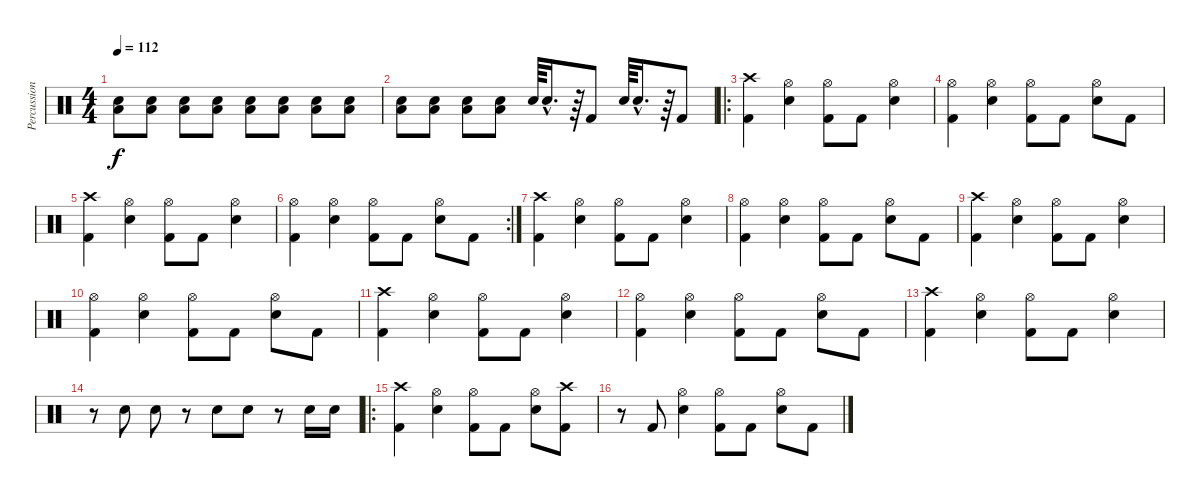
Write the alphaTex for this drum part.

\track ("Percussion" "Percussion") {instrument percussion}
\staff {score}
\articulation defaults
\ts (4 4)
\tempo 112
\clef neutral
\ks c
("Snare (hit) 2" "Low Floor Tom (hit)").8{dy f} ("Snare (hit) 2" "Low Floor Tom (hit)").8 ("Snare (hit) 2" "Low Floor Tom (hit)").8 ("Snare (hit) 2" "Low Floor Tom (hit)").8 ("Snare (hit) 2" "Low Floor Tom (hit)").8 ("Snare (hit) 2" "Low Floor Tom (hit)").8 ("Snare (hit) 2" "Low Floor Tom (hit)").8 ("Snare (hit) 2" "Low Floor Tom (hit)").8 |
("Snare (hit) 2" "Low Floor Tom (hit)").8 ("Snare (hit) 2" "Low Floor Tom (hit)").8 ("Snare (hit) 2" "Low Floor Tom (hit)").8 ("Snare (hit) 2" "Low Floor Tom (hit)").8 "Snare (hit) 2".64 "Snare (hit) 2"{hac}.16{d} r.64 "Kick (hit) 2".8 "Snare (hit) 2".64 "Snare (hit) 2"{hac}.16{d} r.64 "Kick (hit) 2".8 |
\ro
("Crash high (hit)" "Kick (hit) 2").4 ("Hi-Hat (open)" "Snare (hit) 2").4 ("Hi-Hat (open)" "Kick (hit) 2").8 "Kick (hit) 2".8 ("Hi-Hat (open)" "Snare (hit) 2").4 |
("Hi-Hat (open)" "Kick (hit) 2").4 ("Hi-Hat (open)" "Snare (hit) 2").4 ("Hi-Hat (open)" "Kick (hit) 2").8 "Kick (hit) 2".8 ("Hi-Hat (open)" "Snare (hit) 2").8 "Kick (hit) 2".8 |
("Crash high (hit)" "Kick (hit) 2").4 ("Hi-Hat (open)" "Snare (hit) 2").4 ("Hi-Hat (open)" "Kick (hit) 2").8 "Kick (hit) 2".8 ("Hi-Hat (open)" "Snare (hit) 2").4 |
\rc 2
("Hi-Hat (open)" "Kick (hit) 2").4 ("Hi-Hat (open)" "Snare (hit) 2").4 ("Hi-Hat (open)" "Kick (hit) 2").8 "Kick (hit) 2".8 ("Hi-Hat (open)" "Snare (hit) 2").8 "Kick (hit) 2".8 |
("Crash high (hit)" "Kick (hit) 2").4 ("Hi-Hat (open)" "Snare (hit) 2").4 ("Hi-Hat (open)" "Kick (hit) 2").8 "Kick (hit) 2".8 ("Hi-Hat (open)" "Snare (hit) 2").4 |
("Hi-Hat (open)" "Kick (hit) 2").4 ("Hi-Hat (open)" "Snare (hit) 2").4 ("Hi-Hat (open)" "Kick (hit) 2").8 "Kick (hit) 2".8 ("Hi-Hat (open)" "Snare (hit) 2").8 "Kick (hit) 2".8 |
("Crash high (hit)" "Kick (hit) 2").4 ("Hi-Hat (open)" "Snare (hit) 2").4 ("Hi-Hat (open)" "Kick (hit) 2").8 "Kick (hit) 2".8 ("Hi-Hat (open)" "Snare (hit) 2").4 |
("Hi-Hat (open)" "Kick (hit) 2").4 ("Hi-Hat (open)" "Snare (hit) 2").4 ("Hi-Hat (open)" "Kick (hit) 2").8 "Kick (hit) 2".8 ("Hi-Hat (open)" "Snare (hit) 2").8 "Kick (hit) 2".8 |
("Crash high (hit)" "Kick (hit) 2").4 ("Hi-Hat (open)" "Snare (hit) 2").4 ("Hi-Hat (open)" "Kick (hit) 2").8 "Kick (hit) 2".8 ("Hi-Hat (open)" "Snare (hit) 2").4 |
("Hi-Hat (open)" "Kick (hit) 2").4 ("Hi-Hat (open)" "Snare (hit) 2").4 ("Hi-Hat (open)" "Kick (hit) 2").8 "Kick (hit) 2".8 ("Hi-Hat (open)" "Snare (hit) 2").8 "Kick (hit) 2".8 |
("Crash high (hit)" "Kick (hit) 2").4 ("Hi-Hat (open)" "Snare (hit) 2").4 ("Hi-Hat (open)" "Kick (hit) 2").8 "Kick (hit) 2".8 ("Hi-Hat (open)" "Snare (hit) 2").4 |
r.8 "Snare (hit) 2".8 "Snare (hit) 2".8 r.8 "Snare (hit) 2".8 "Snare (hit) 2".8 r.8 "Snare (hit) 2".16 "Snare (hit) 2".16 |
\ro
("Crash high (hit)" "Kick (hit) 2").4 ("Hi-Hat (open)" "Snare (hit) 2").4 ("Hi-Hat (open)" "Kick (hit) 2").8 "Kick (hit) 2".8 ("Hi-Hat (open)" "Snare (hit) 2").8 ("Crash high (hit)" "Kick (hit) 2").8 |
r.8 "Kick (hit) 2".8 ("Hi-Hat (open)" "Snare (hit) 2").4 ("Hi-Hat (open)" "Kick (hit) 2").8 "Kick (hit) 2".8 ("Hi-Hat (open)" "Snare (hit) 2").8 "Kick (hit) 2".8
